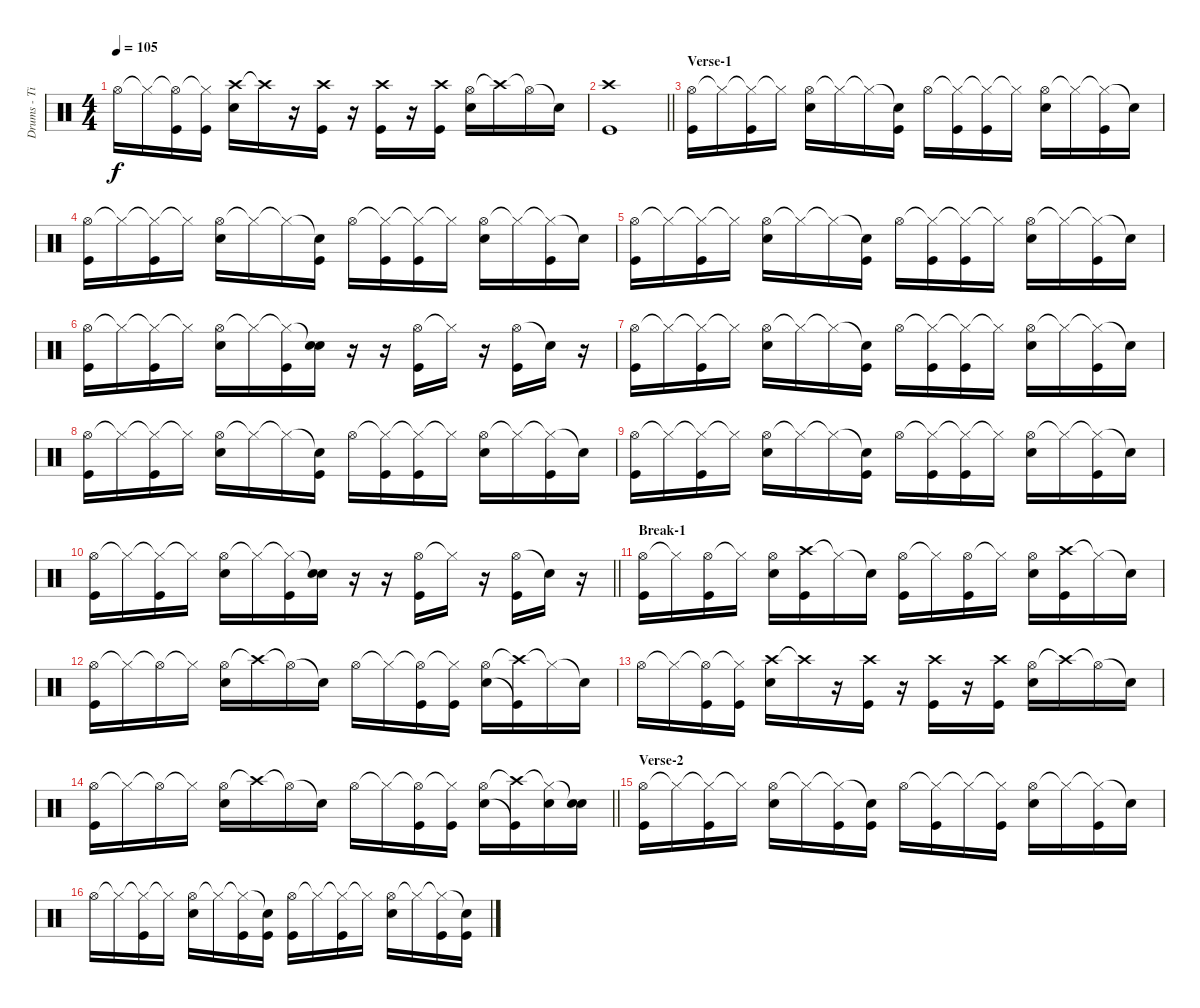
\track ("Drums - Tipu" "Drums - Ti") {instrument percussion}
\staff {score}
\articulation defaults
\ts (4 4)
\tempo 105
\clef neutral
\ks c "Hi-Hat (open)".16{dy f} "Hi-Hat (closed)"{t}.16
("Hi-Hat (open)"{t} "Kick (hit)").16 ("Hi-Hat (closed)"{t} "Kick (hit)").16 ("Crash high (hit)" "Electric Snare (hit)").16 "Crash high (hit)"{t}.16 r.16 ("Crash high (hit)" "Kick (hit)").16 r.16 ("Crash high (hit)" "Kick (hit)").16 r.16 ("Crash high (hit)" "Kick (hit)").16 ("Hi-Hat (open)" "Electric Snare (hit)").16 "Crash high (hit)"{t}.16 "Hi-Hat (open)"{t}.16 "Snare (hit)"{t}.16 |
\barLineRight lightlight
("Crash high (hit)" "Kick (hit)").1 |
\section ("" "Verse-1")
("Hi-Hat (open)" "Kick (hit)").16 "Hi-Hat (closed)"{t}.16 ("Hi-Hat (closed)"{t} "Kick (hit)").16 "Hi-Hat (closed)"{t}.16 ("Hi-Hat (open)" "Electric Snare (hit)").16 "Hi-Hat (closed)"{t}.16 "Hi-Hat (closed)"{t}.16 ("Snare (hit)"{t} "Kick (hit)").16 "Hi-Hat (open)".16 ("Hi-Hat (closed)"{t} "Kick (hit)").16 ("Hi-Hat (closed)"{t} "Kick (hit)").16 "Hi-Hat (closed)"{t}.16 ("Hi-Hat (open)" "Electric Snare (hit)").16 "Hi-Hat (closed)"{t}.16 ("Hi-Hat (closed)"{t} "Kick (hit)").16 "Snare (hit)"{t}.16 |
("Hi-Hat (open)" "Kick (hit)").16 "Hi-Hat (closed)"{t}.16 ("Hi-Hat (closed)"{t} "Kick (hit)").16 "Hi-Hat (closed)"{t}.16 ("Hi-Hat (open)" "Electric Snare (hit)").16 "Hi-Hat (closed)"{t}.16 "Hi-Hat (closed)"{t}.16 ("Snare (hit)"{t} "Kick (hit)").16 "Hi-Hat (open)".16 ("Hi-Hat (closed)"{t} "Kick (hit)").16 ("Hi-Hat (closed)"{t} "Kick (hit)").16 "Hi-Hat (closed)"{t}.16 ("Hi-Hat (open)" "Electric Snare (hit)").16 "Hi-Hat (closed)"{t}.16 ("Hi-Hat (closed)"{t} "Kick (hit)").16 "Snare (hit)"{t}.16 |
("Hi-Hat (open)" "Kick (hit)").16 "Hi-Hat (closed)"{t}.16 ("Hi-Hat (closed)"{t} "Kick (hit)").16 "Hi-Hat (closed)"{t}.16 ("Hi-Hat (open)" "Electric Snare (hit)").16 "Hi-Hat (closed)"{t}.16 "Hi-Hat (closed)"{t}.16 ("Snare (hit)"{t} "Kick (hit)").16 "Hi-Hat (open)".16 ("Hi-Hat (closed)"{t} "Kick (hit)").16 ("Hi-Hat (closed)"{t} "Kick (hit)").16 "Hi-Hat (closed)"{t}.16 ("Hi-Hat (open)" "Electric Snare (hit)").16 "Hi-Hat (closed)"{t}.16 ("Hi-Hat (closed)"{t} "Kick (hit)").16 "Snare (hit)"{t}.16 |
("Hi-Hat (open)" "Kick (hit)").16 "Hi-Hat (closed)"{t}.16 ("Hi-Hat (closed)"{t} "Kick (hit)").16 "Hi-Hat (closed)"{t}.16 ("Hi-Hat (open)" "Electric Snare (hit)").16 "Hi-Hat (closed)"{t}.16 ("Hi-Hat (closed)"{t} "Kick (hit)").16 ("Snare (hit)"{t} "Electric Snare (hit)").16 r.16 r.16 ("Hi-Hat (open)" "Kick (hit)").16 "Hi-Hat (closed)"{t}.16 r.16 ("Hi-Hat (open)" "Kick (hit)").16 "Snare (hit)"{t}.16 r.16 |
("Hi-Hat (open)" "Kick (hit)").16 "Hi-Hat (closed)"{t}.16 ("Hi-Hat (closed)"{t} "Kick (hit)").16 "Hi-Hat (closed)"{t}.16 ("Hi-Hat (open)" "Electric Snare (hit)").16 "Hi-Hat (closed)"{t}.16 "Hi-Hat (closed)"{t}.16 ("Snare (hit)"{t} "Kick (hit)").16 "Hi-Hat (open)".16 ("Hi-Hat (closed)"{t} "Kick (hit)").16 ("Hi-Hat (closed)"{t} "Kick (hit)").16 "Hi-Hat (closed)"{t}.16 ("Hi-Hat (open)" "Electric Snare (hit)").16 "Hi-Hat (closed)"{t}.16 ("Hi-Hat (closed)"{t} "Kick (hit)").16 "Snare (hit)"{t}.16 |
("Hi-Hat (open)" "Kick (hit)").16 "Hi-Hat (closed)"{t}.16 ("Hi-Hat (closed)"{t} "Kick (hit)").16 "Hi-Hat (closed)"{t}.16 ("Hi-Hat (open)" "Electric Snare (hit)").16 "Hi-Hat (closed)"{t}.16 "Hi-Hat (closed)"{t}.16 ("Snare (hit)"{t} "Kick (hit)").16 "Hi-Hat (open)".16 ("Hi-Hat (closed)"{t} "Kick (hit)").16 ("Hi-Hat (closed)"{t} "Kick (hit)").16 "Hi-Hat (closed)"{t}.16 ("Hi-Hat (open)" "Electric Snare (hit)").16 "Hi-Hat (closed)"{t}.16 ("Hi-Hat (closed)"{t} "Kick (hit)").16 "Snare (hit)"{t}.16 |
("Hi-Hat (open)" "Kick (hit)").16 "Hi-Hat (closed)"{t}.16 ("Hi-Hat (closed)"{t} "Kick (hit)").16 "Hi-Hat (closed)"{t}.16 ("Hi-Hat (open)" "Electric Snare (hit)").16 "Hi-Hat (closed)"{t}.16 "Hi-Hat (closed)"{t}.16 ("Snare (hit)"{t} "Kick (hit)").16 "Hi-Hat (open)".16 ("Hi-Hat (closed)"{t} "Kick (hit)").16 ("Hi-Hat (closed)"{t} "Kick (hit)").16 "Hi-Hat (closed)"{t}.16 ("Hi-Hat (open)" "Electric Snare (hit)").16 "Hi-Hat (closed)"{t}.16 ("Hi-Hat (closed)"{t} "Kick (hit)").16 "Snare (hit)"{t}.16 |
\barLineRight lightlight
("Hi-Hat (open)" "Kick (hit)").16 "Hi-Hat (closed)"{t}.16 ("Hi-Hat (closed)"{t} "Kick (hit)").16 "Hi-Hat (closed)"{t}.16 ("Hi-Hat (open)" "Electric Snare (hit)").16 "Hi-Hat (closed)"{t}.16 ("Hi-Hat (closed)"{t} "Kick (hit)").16 ("Snare (hit)"{t} "Electric Snare (hit)").16 r.16 r.16 ("Hi-Hat (open)" "Kick (hit)").16 "Hi-Hat (closed)"{t}.16 r.16 ("Hi-Hat (open)" "Kick (hit)").16 "Snare (hit)"{t}.16 r.16 |
\section ("" "Break-1")
("Hi-Hat (open)" "Kick (hit)").16 "Hi-Hat (closed)"{t}.16 ("Hi-Hat (open)" "Kick (hit)").16 "Hi-Hat (closed)"{t}.16 ("Hi-Hat (open)" "Electric Snare (hit)").16 ("Crash high (hit)" "Kick (hit)").16 "Hi-Hat (closed)"{t}.16 "Snare (hit)"{t}.16 ("Hi-Hat (open)" "Kick (hit)").16 "Hi-Hat (closed)"{t}.16 ("Hi-Hat (open)" "Kick (hit)").16 "Hi-Hat (closed)"{t}.16 ("Hi-Hat (open)" "Electric Snare (hit)").16 ("Crash high (hit)" "Kick (hit)").16 "Hi-Hat (closed)"{t}.16 "Snare (hit)"{t}.16 |
("Hi-Hat (open)" "Kick (hit)").16 "Hi-Hat (closed)"{t}.16 "Hi-Hat (open)"{t}.16 "Hi-Hat (closed)"{t}.16 ("Hi-Hat (open)" "Electric Snare (hit)").16 "Crash high (hit)"{t}.16 "Hi-Hat (open)"{t}.16 "Snare (hit)"{t}.16 "Hi-Hat (open)".16 "Hi-Hat (closed)"{t}.16 ("Hi-Hat (open)"{t} "Kick (hit)").16 ("Hi-Hat (closed)"{t} "Kick (hit)").16 ("Hi-Hat (open)" "Electric Snare (hit)").16 ("Crash high (hit)"{t} "Kick (hit)"{t}).16 "Hi-Hat (closed)"{t}.16 "Snare (hit)"{t}.16 |
"Hi-Hat (open)".16 "Hi-Hat (closed)"{t}.16 ("Hi-Hat (open)"{t} "Kick (hit)").16 ("Hi-Hat (closed)"{t} "Kick (hit)").16 ("Crash high (hit)" "Electric Snare (hit)").16 "Crash high (hit)"{t}.16 r.16 ("Crash high (hit)" "Kick (hit)").16 r.16 ("Crash high (hit)" "Kick (hit)").16 r.16 ("Crash high (hit)" "Kick (hit)").16 ("Hi-Hat (open)" "Electric Snare (hit)").16 "Crash high (hit)"{t}.16 "Hi-Hat (open)"{t}.16 "Snare (hit)"{t}.16 |
\barLineRight lightlight
("Hi-Hat (open)" "Kick (hit)").16 "Hi-Hat (closed)"{t}.16 "Hi-Hat (open)"{t}.16 "Hi-Hat (closed)"{t}.16 ("Hi-Hat (open)" "Electric Snare (hit)").16 "Crash high (hit)"{t}.16 "Hi-Hat (open)"{t}.16 "Snare (hit)"{t}.16 "Hi-Hat (open)".16 "Hi-Hat (closed)"{t}.16 ("Hi-Hat (open)"{t} "Kick (hit)").16 ("Hi-Hat (closed)"{t} "Kick (hit)").16 ("Hi-Hat (open)" "Electric Snare (hit)").16 ("Crash high (hit)"{t} "Kick (hit)"{t}).16 ("Hi-Hat (closed)"{t} "Electric Snare (hit)").16 ("Snare (hit)"{t} "Electric Snare (hit)").16 |
\section ("" "Verse-2")
("Hi-Hat (open)" "Kick (hit)").16 "Hi-Hat (closed)"{t}.16 ("Hi-Hat (closed)"{t} "Kick (hit)").16 "Hi-Hat (closed)"{t}.16 ("Hi-Hat (open)" "Electric Snare (hit)").16 "Hi-Hat (closed)"{t}.16 ("Hi-Hat (closed)"{t} "Kick (hit)").16 ("Snare (hit)"{t} "Kick (hit)").16 "Hi-Hat (open)".16 ("Hi-Hat (closed)"{t} "Kick (hit)").16 "Hi-Hat (closed)"{t}.16 ("Hi-Hat (closed)"{t} "Kick (hit)").16 ("Hi-Hat (open)" "Electric Snare (hit)").16 "Hi-Hat (closed)"{t}.16 ("Hi-Hat (closed)"{t} "Kick (hit)").16 "Snare (hit)"{t}.16 |
"Hi-Hat (open)".16 "Hi-Hat (closed)"{t}.16 ("Hi-Hat (closed)"{t} "Kick (hit)").16 "Hi-Hat (closed)"{t}.16 ("Hi-Hat (open)" "Electric Snare (hit)").16 "Hi-Hat (closed)"{t}.16 ("Hi-Hat (closed)"{t} "Kick (hit)").16 ("Snare (hit)"{t} "Kick (hit)").16 ("Hi-Hat (open)" "Kick (hit)").16 "Hi-Hat (closed)"{t}.16 ("Hi-Hat (closed)"{t} "Kick (hit)").16 "Hi-Hat (closed)"{t}.16 ("Hi-Hat (open)" "Electric Snare (hit)").16 "Hi-Hat (closed)"{t}.16 ("Hi-Hat (closed)"{t} "Kick (hit)").16 ("Snare (hit)"{t} "Kick (hit)").16
